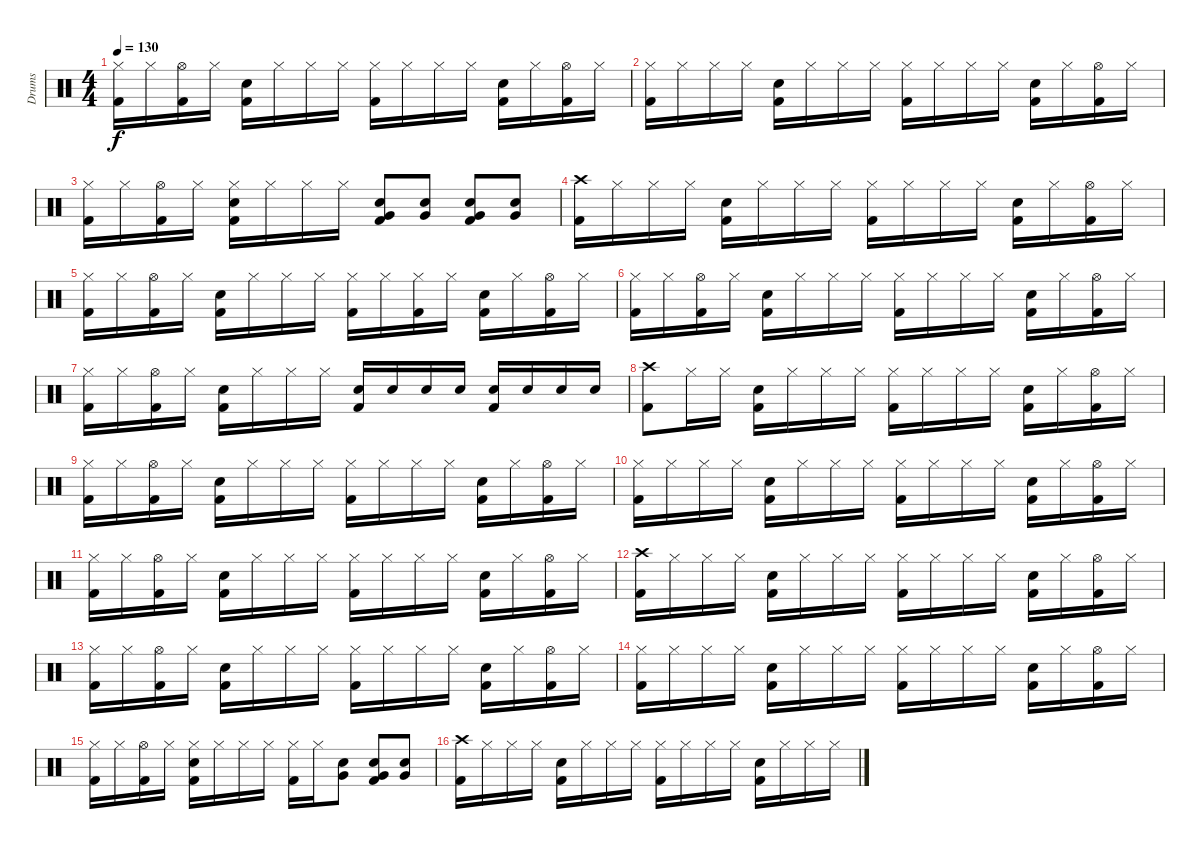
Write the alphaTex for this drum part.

\track ("Drums" "Drums") {instrument percussion}
\staff {score}
\articulation defaults
\ts (4 4)
\tempo 130
\clef neutral
\ks c
("Hi-Hat (closed)" "Kick (hit) 2").16{dy f} "Hi-Hat (closed)".16 ("Hi-Hat (open)" "Kick (hit) 2").16 "Hi-Hat (closed)".16 ("Electric Snare (hit)" "Kick (hit) 2").16 "Hi-Hat (closed)".16 "Hi-Hat (closed)".16 "Hi-Hat (closed)".16 ("Hi-Hat (closed)" "Kick (hit) 2").16 "Hi-Hat (closed)".16 "Hi-Hat (closed)".16 "Hi-Hat (closed)".16 ("Electric Snare (hit)" "Kick (hit) 2").16 "Hi-Hat (closed)".16 ("Hi-Hat (open)" "Kick (hit) 2").16 "Hi-Hat (closed)".16 |
("Hi-Hat (closed)" "Kick (hit) 2").16 "Hi-Hat (closed)".16 "Hi-Hat (closed)".16 "Hi-Hat (closed)".16 ("Electric Snare (hit)" "Kick (hit) 2").16 "Hi-Hat (closed)".16 "Hi-Hat (closed)".16 "Hi-Hat (closed)".16 ("Hi-Hat (closed)" "Kick (hit) 2").16 "Hi-Hat (closed)".16 "Hi-Hat (closed)".16 "Hi-Hat (closed)".16 ("Electric Snare (hit)" "Kick (hit) 2").16 "Hi-Hat (closed)".16 ("Hi-Hat (open)" "Kick (hit) 2").16 "Hi-Hat (closed)".16 |
("Hi-Hat (closed)" "Kick (hit) 2").16 "Hi-Hat (closed)".16 ("Hi-Hat (open)" "Kick (hit) 2").16 "Hi-Hat (closed)".16 ("Hi-Hat (closed)" "Electric Snare (hit)" "Kick (hit) 2").16 "Hi-Hat (closed)".16 "Hi-Hat (closed)".16 "Hi-Hat (closed)".16 ("Very Low Tom (hit)" "Electric Snare (hit)" "Kick (hit) 2").8 ("Very Low Tom (hit)" "Electric Snare (hit)").8 ("Very Low Tom (hit)" "Electric Snare (hit)" "Kick (hit) 2").8 ("Very Low Tom (hit)" "Electric Snare (hit)").8 |
("Crash high (hit)" "Kick (hit) 2").16 "Hi-Hat (closed)".16 "Hi-Hat (closed)".16 "Hi-Hat (closed)".16 ("Electric Snare (hit)" "Kick (hit) 2").16 "Hi-Hat (closed)".16 "Hi-Hat (closed)".16 "Hi-Hat (closed)".16 ("Hi-Hat (closed)" "Kick (hit) 2").16 "Hi-Hat (closed)".16 "Hi-Hat (closed)".16 "Hi-Hat (closed)".16 ("Electric Snare (hit)" "Kick (hit) 2").16 "Hi-Hat (closed)".16 ("Hi-Hat (open)" "Kick (hit) 2").16 "Hi-Hat (closed)".16 |
("Hi-Hat (closed)" "Kick (hit) 2").16 "Hi-Hat (closed)".16 ("Hi-Hat (open)" "Kick (hit) 2").16 "Hi-Hat (closed)".16 ("Electric Snare (hit)" "Kick (hit) 2").16 "Hi-Hat (closed)".16 "Hi-Hat (closed)".16 "Hi-Hat (closed)".16 ("Hi-Hat (closed)" "Kick (hit) 2").16 "Hi-Hat (closed)".16 ("Hi-Hat (closed)" "Kick (hit) 2").16 "Hi-Hat (closed)".16 ("Electric Snare (hit)" "Kick (hit) 2").16 "Hi-Hat (closed)".16 ("Hi-Hat (open)" "Kick (hit) 2").16 "Hi-Hat (closed)".16 |
("Hi-Hat (closed)" "Kick (hit) 2").16 "Hi-Hat (closed)".16 ("Hi-Hat (open)" "Kick (hit) 2").16 "Hi-Hat (closed)".16 ("Electric Snare (hit)" "Kick (hit) 2").16 "Hi-Hat (closed)".16 "Hi-Hat (closed)".16 "Hi-Hat (closed)".16 ("Hi-Hat (closed)" "Kick (hit) 2").16 "Hi-Hat (closed)".16 "Hi-Hat (closed)".16 "Hi-Hat (closed)".16 ("Electric Snare (hit)" "Kick (hit) 2").16 "Hi-Hat (closed)".16 ("Hi-Hat (open)" "Kick (hit) 2").16 "Hi-Hat (closed)".16 |
("Hi-Hat (closed)" "Kick (hit) 2").16 "Hi-Hat (closed)".16 ("Hi-Hat (open)" "Kick (hit) 2").16 "Hi-Hat (closed)".16 ("Electric Snare (hit)" "Kick (hit) 2").16 "Hi-Hat (closed)".16 "Hi-Hat (closed)".16 "Hi-Hat (closed)".16 ("Electric Snare (hit)" "Kick (hit) 2").16 "Electric Snare (hit)".16 "Electric Snare (hit)".16 "Electric Snare (hit)".16 ("Electric Snare (hit)" "Kick (hit) 2").16 "Electric Snare (hit)".16 "Electric Snare (hit)".16 "Electric Snare (hit)".16 |
("Crash high (hit)" "Kick (hit) 2").8 "Hi-Hat (closed)".16 "Hi-Hat (closed)".16 ("Electric Snare (hit)" "Kick (hit) 2").16 "Hi-Hat (closed)".16 "Hi-Hat (closed)".16 "Hi-Hat (closed)".16 ("Hi-Hat (closed)" "Kick (hit) 2").16 "Hi-Hat (closed)".16 "Hi-Hat (closed)".16 "Hi-Hat (closed)".16 ("Electric Snare (hit)" "Kick (hit) 2").16 "Hi-Hat (closed)".16 ("Hi-Hat (open)" "Kick (hit) 2").16 "Hi-Hat (closed)".16 |
("Hi-Hat (closed)" "Kick (hit) 2").16 "Hi-Hat (closed)".16 ("Hi-Hat (open)" "Kick (hit) 2").16 "Hi-Hat (closed)".16 ("Electric Snare (hit)" "Kick (hit) 2").16 "Hi-Hat (closed)".16 "Hi-Hat (closed)".16 "Hi-Hat (closed)".16 ("Hi-Hat (closed)" "Kick (hit) 2").16 "Hi-Hat (closed)".16 "Hi-Hat (closed)".16 "Hi-Hat (closed)".16 ("Electric Snare (hit)" "Kick (hit) 2").16 "Hi-Hat (closed)".16 ("Hi-Hat (open)" "Kick (hit) 2").16 "Hi-Hat (closed)".16 |
("Hi-Hat (closed)" "Kick (hit) 2").16 "Hi-Hat (closed)".16 "Hi-Hat (closed)".16 "Hi-Hat (closed)".16 ("Electric Snare (hit)" "Kick (hit) 2").16 "Hi-Hat (closed)".16 "Hi-Hat (closed)".16 "Hi-Hat (closed)".16 ("Hi-Hat (closed)" "Kick (hit) 2").16 "Hi-Hat (closed)".16 "Hi-Hat (closed)".16 "Hi-Hat (closed)".16 ("Electric Snare (hit)" "Kick (hit) 2").16 "Hi-Hat (closed)".16 ("Hi-Hat (open)" "Kick (hit) 2").16 "Hi-Hat (closed)".16 |
("Hi-Hat (closed)" "Kick (hit) 2").16 "Hi-Hat (closed)".16 ("Hi-Hat (open)" "Kick (hit) 2").16 "Hi-Hat (closed)".16 ("Electric Snare (hit)" "Kick (hit) 2").16 "Hi-Hat (closed)".16 "Hi-Hat (closed)".16 "Hi-Hat (closed)".16 ("Hi-Hat (closed)" "Kick (hit) 2").16 "Hi-Hat (closed)".16 "Hi-Hat (closed)".16 "Hi-Hat (closed)".16 ("Electric Snare (hit)" "Kick (hit) 2").16 "Hi-Hat (closed)".16 ("Hi-Hat (open)" "Kick (hit) 2").16 "Hi-Hat (closed)".16 |
("Crash high (hit)" "Kick (hit) 2").16 "Hi-Hat (closed)".16 "Hi-Hat (closed)".16 "Hi-Hat (closed)".16 ("Electric Snare (hit)" "Kick (hit) 2").16 "Hi-Hat (closed)".16 "Hi-Hat (closed)".16 "Hi-Hat (closed)".16 ("Hi-Hat (closed)" "Kick (hit) 2").16 "Hi-Hat (closed)".16 "Hi-Hat (closed)".16 "Hi-Hat (closed)".16 ("Electric Snare (hit)" "Kick (hit) 2").16 "Hi-Hat (closed)".16 ("Hi-Hat (open)" "Kick (hit) 2").16 "Hi-Hat (closed)".16 |
("Hi-Hat (closed)" "Kick (hit) 2").16 "Hi-Hat (closed)".16 ("Hi-Hat (open)" "Kick (hit) 2").16 "Hi-Hat (closed)".16 ("Electric Snare (hit)" "Kick (hit) 2").16 "Hi-Hat (closed)".16 "Hi-Hat (closed)".16 "Hi-Hat (closed)".16 ("Hi-Hat (closed)" "Kick (hit) 2").16 "Hi-Hat (closed)".16 "Hi-Hat (closed)".16 "Hi-Hat (closed)".16 ("Electric Snare (hit)" "Kick (hit) 2").16 "Hi-Hat (closed)".16 ("Hi-Hat (open)" "Kick (hit) 2").16 "Hi-Hat (closed)".16 |
("Hi-Hat (closed)" "Kick (hit) 2").16 "Hi-Hat (closed)".16 "Hi-Hat (closed)".16 "Hi-Hat (closed)".16 ("Electric Snare (hit)" "Kick (hit) 2").16 "Hi-Hat (closed)".16 "Hi-Hat (closed)".16 "Hi-Hat (closed)".16 ("Hi-Hat (closed)" "Kick (hit) 2").16 "Hi-Hat (closed)".16 "Hi-Hat (closed)".16 "Hi-Hat (closed)".16 ("Electric Snare (hit)" "Kick (hit) 2").16 "Hi-Hat (closed)".16 ("Hi-Hat (open)" "Kick (hit) 2").16 "Hi-Hat (closed)".16 |
("Hi-Hat (closed)" "Kick (hit) 2").16 "Hi-Hat (closed)".16 ("Hi-Hat (open)" "Kick (hit) 2").16 "Hi-Hat (closed)".16 ("Hi-Hat (closed)" "Electric Snare (hit)" "Kick (hit) 2").16 "Hi-Hat (closed)".16 "Hi-Hat (closed)".16 "Hi-Hat (closed)".16 ("Hi-Hat (closed)" "Kick (hit) 2").16 "Hi-Hat (closed)".16 ("Very Low Tom (hit)" "Electric Snare (hit)").8 ("Very Low Tom (hit)" "Electric Snare (hit)" "Kick (hit) 2").8 ("Very Low Tom (hit)" "Electric Snare (hit)").8 |
("Crash high (hit)" "Kick (hit) 2").16 "Hi-Hat (closed)".16 "Hi-Hat (closed)".16 "Hi-Hat (closed)".16 ("Electric Snare (hit)" "Kick (hit) 2").16 "Hi-Hat (closed)".16 "Hi-Hat (closed)".16 "Hi-Hat (closed)".16 ("Hi-Hat (closed)" "Kick (hit) 2").16 "Hi-Hat (closed)".16 "Hi-Hat (closed)".16 "Hi-Hat (closed)".16 ("Electric Snare (hit)" "Kick (hit) 2").16 "Hi-Hat (closed)".16 "Hi-Hat (closed)".16 "Hi-Hat (closed)".16
